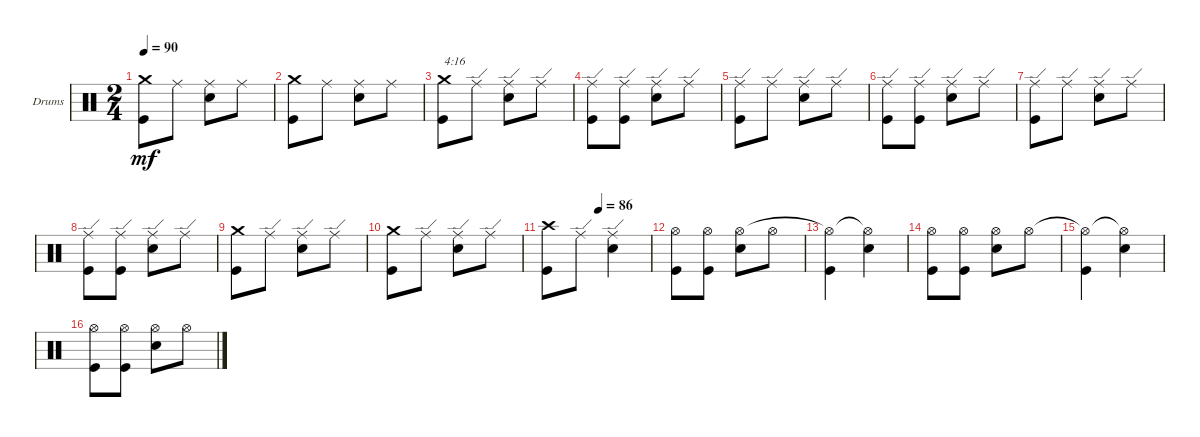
\bracketExtendMode groupsimilarinstruments
\firstSystemTrackNameOrientation horizontal
\otherSystemsTrackNameOrientation horizontal
\track ("Drumkit" "Drums") {instrument percussion}
\staff {score}
\articulation defaults
\ts (2 4)
\tempo 90
\clef neutral
\scale
0.333333
\ks c
("Crash medium (hit)" "Kick (hit)").8{dy mf} "Ride (middle)".8 ("Ride (middle)" "Snare (hit) 2").8 "Ride (middle)".8 |
\scale
0.333333 ("Crash medium (hit)" "Kick (hit)").8 "Ride (middle)".8 ("Ride (middle)" "Snare (hit) 2").8 "Ride (middle)".8 |
\scale
0.333333 ("Kick (hit)" "Crash medium (hit)").8{txt "4:16"} "Ride (edge)".8 ("Ride (edge)" "Snare (hit) 2").8 "Ride (edge)".8 |
\scale
0.333333 ("Ride (edge)" "Kick (hit)").8 ("Ride (edge)" "Kick (hit)").8 ("Ride (edge)" "Snare (hit) 2").8 "Ride (edge)".8 |
\scale
0.333333 ("Ride (edge)" "Kick (hit)").8 "Ride (edge)".8 ("Ride (edge)" "Snare (hit) 2").8 "Ride (edge)".8 |
\scale
0.333333 ("Ride (edge)" "Kick (hit)").8 ("Ride (edge)" "Kick (hit)").8 ("Ride (edge)" "Snare (hit) 2").8 "Ride (edge)".8 |
\scale
0.333333 ("Ride (edge)" "Kick (hit)").8 "Ride (edge)".8 ("Ride (edge)" "Snare (hit) 2").8 "Ride (edge)".8 |
\scale
0.333333 ("Ride (edge)" "Kick (hit)").8 ("Ride (edge)" "Kick (hit)").8 ("Ride (edge)" "Snare (hit) 2").8 "Ride (edge)".8 |
\scale
0.333333 ("Crash medium (hit)" "Kick (hit)").8 "Ride (edge)".8 ("Ride (edge)" "Snare (hit) 2").8 "Ride (edge)".8 |
\scale
0.333333 ("Crash medium (hit)" "Kick (hit)").8 "Ride (edge)".8 ("Ride (edge)" "Snare (hit) 2").8 "Ride (edge)".8 |
\tempo (86 0.5)
\scale
0.333333 ("Crash high (hit)" "Kick (hit)").8 "Ride (edge)".8 ("Ride (edge)" "Snare (hit) 2").4 |
\scale
0.333333 ("Kick (hit)" "Hi-Hat (open)").8 ("Kick (hit)" "Hi-Hat (open)").8 ("Snare (hit) 2" "Hi-Hat (open)").8 "Hi-Hat (open)".8 |
\scale
0.333333 ("Kick (hit)" "Hi-Hat (open)"{t}).4 ("Snare (hit) 2" "Hi-Hat (open)"{t}).4 |
\scale
0.333333 ("Kick (hit)" "Hi-Hat (open)").8 ("Kick (hit)" "Hi-Hat (open)").8 ("Hi-Hat (open)" "Snare (hit) 2").8 "Hi-Hat (open)".8 |
\scale
0.333333 ("Hi-Hat (open)"{t} "Kick (hit)").4 ("Hi-Hat (open)"{t} "Snare (hit) 2").4 |
\scale
0.333333 ("Kick (hit)" "Hi-Hat (open)").8 ("Kick (hit)" "Hi-Hat (open)").8 ("Snare (hit) 2" "Hi-Hat (open)").8 "Hi-Hat (open)".8
